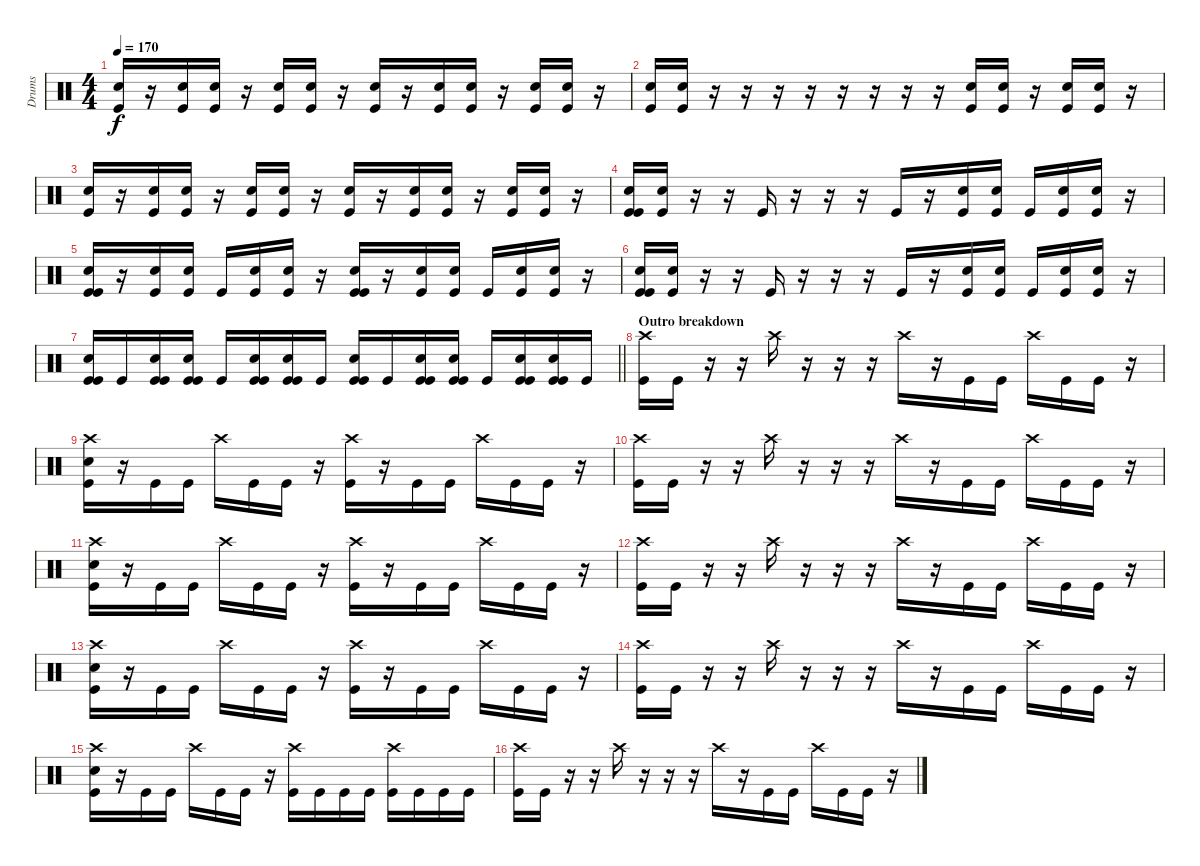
\track ("Drums" "Drums") {instrument percussion}
\staff {score}
\articulation defaults
\ts (4 4)
\tempo 170
\clef neutral
\ks c
("Kick (hit)" "Snare (hit) 2").16{dy f} r.16 ("Kick (hit)" "Snare (hit) 2").16 ("Kick (hit)" "Snare (hit) 2").16 r.16 ("Kick (hit)" "Snare (hit) 2").16 ("Kick (hit)" "Snare (hit) 2").16 r.16 ("Kick (hit)" "Snare (hit) 2").16 r.16 ("Kick (hit)" "Snare (hit) 2").16 ("Kick (hit)" "Snare (hit) 2").16 r.16 ("Kick (hit)" "Snare (hit) 2").16 ("Kick (hit)" "Snare (hit) 2").16 r.16 |
("Kick (hit)" "Snare (hit) 2").16 ("Kick (hit)" "Snare (hit) 2").16 r.16 r.16 r.16 r.16 r.16 r.16 r.16 r.16 ("Kick (hit)" "Snare (hit) 2").16 ("Kick (hit)" "Snare (hit) 2").16 r.16 ("Kick (hit)" "Snare (hit) 2").16 ("Kick (hit)" "Snare (hit) 2").16 r.16 |
("Kick (hit)" "Snare (hit) 2").16 r.16 ("Kick (hit)" "Snare (hit) 2").16 ("Kick (hit)" "Snare (hit) 2").16 r.16 ("Kick (hit)" "Snare (hit) 2").16 ("Kick (hit)" "Snare (hit) 2").16 r.16 ("Kick (hit)" "Snare (hit) 2").16 r.16 ("Kick (hit)" "Snare (hit) 2").16 ("Kick (hit)" "Snare (hit) 2").16 r.16 ("Kick (hit)" "Snare (hit) 2").16 ("Kick (hit)" "Snare (hit) 2").16 r.16 |
("Kick (hit)" "Kick (hit)" "Snare (hit) 2").16 ("Kick (hit)" "Snare (hit) 2").16 r.16 r.16 "Kick (hit)".16 r.16 r.16 r.16 "Kick (hit)".16 r.16 ("Kick (hit)" "Snare (hit) 2").16 ("Kick (hit)" "Snare (hit) 2").16 "Kick (hit)".16 ("Kick (hit)" "Snare (hit) 2").16 ("Kick (hit)" "Snare (hit) 2").16 r.16 |
("Kick (hit)" "Kick (hit)" "Snare (hit) 2").16 r.16 ("Kick (hit)" "Snare (hit) 2").16 ("Kick (hit)" "Snare (hit) 2").16 "Kick (hit)".16 ("Kick (hit)" "Snare (hit) 2").16 ("Kick (hit)" "Snare (hit) 2").16 r.16 ("Kick (hit)" "Kick (hit)" "Snare (hit) 2").16 r.16 ("Kick (hit)" "Snare (hit) 2").16 ("Kick (hit)" "Snare (hit) 2").16 "Kick (hit)".16 ("Kick (hit)" "Snare (hit) 2").16 ("Kick (hit)" "Snare (hit) 2").16 r.16 |
("Kick (hit)" "Kick (hit)" "Snare (hit) 2").16 ("Kick (hit)" "Snare (hit) 2").16 r.16 r.16 "Kick (hit)".16 r.16 r.16 r.16 "Kick (hit)".16 r.16 ("Kick (hit)" "Snare (hit) 2").16 ("Kick (hit)" "Snare (hit) 2").16 "Kick (hit)".16 ("Kick (hit)" "Snare (hit) 2").16 ("Kick (hit)" "Snare (hit) 2").16 r.16 |
\barLineRight lightlight
("Kick (hit)" "Kick (hit)" "Snare (hit) 2").16 "Kick (hit)".16 ("Kick (hit)" "Kick (hit)" "Snare (hit) 2").16 ("Kick (hit)" "Kick (hit)" "Snare (hit) 2").16 "Kick (hit)".16 ("Kick (hit)" "Kick (hit)" "Snare (hit) 2").16 ("Kick (hit)" "Kick (hit)" "Snare (hit) 2").16 "Kick (hit)".16 ("Kick (hit)" "Kick (hit)" "Snare (hit) 2").16 "Kick (hit)".16 ("Kick (hit)" "Kick (hit)" "Snare (hit) 2").16 ("Kick (hit)" "Kick (hit)" "Snare (hit) 2").16 "Kick (hit)".16 ("Kick (hit)" "Kick (hit)" "Snare (hit) 2").16 ("Kick (hit)" "Kick (hit)" "Snare (hit) 2").16 "Kick (hit)".16 |
\section ("" "Outro breakdown")
("Kick (hit)" "Crash high (hit)").16 "Kick (hit)".16 r.16 r.16 "Crash high (hit)".16 r.16 r.16 r.16 "Crash high (hit)".16 r.16 "Kick (hit)".16 "Kick (hit)".16 "Crash high (hit)".16 "Kick (hit)".16 "Kick (hit)".16 r.16 |
("Kick (hit)" "Snare (hit) 2" "Crash high (hit)").16 r.16 "Kick (hit)".16 "Kick (hit)".16 "Crash high (hit)".16 "Kick (hit)".16 "Kick (hit)".16 r.16 ("Kick (hit)" "Crash high (hit)").16 r.16 "Kick (hit)".16 "Kick (hit)".16 "Crash high (hit)".16 "Kick (hit)".16 "Kick (hit)".16 r.16 |
("Kick (hit)" "Crash high (hit)").16 "Kick (hit)".16 r.16 r.16 "Crash high (hit)".16 r.16 r.16 r.16 "Crash high (hit)".16 r.16 "Kick (hit)".16 "Kick (hit)".16 "Crash high (hit)".16 "Kick (hit)".16 "Kick (hit)".16 r.16 |
("Kick (hit)" "Snare (hit) 2" "Crash high (hit)").16 r.16 "Kick (hit)".16 "Kick (hit)".16 "Crash high (hit)".16 "Kick (hit)".16 "Kick (hit)".16 r.16 ("Kick (hit)" "Crash high (hit)").16 r.16 "Kick (hit)".16 "Kick (hit)".16 "Crash high (hit)".16 "Kick (hit)".16 "Kick (hit)".16 r.16 |
("Kick (hit)" "Crash high (hit)").16 "Kick (hit)".16 r.16 r.16 "Crash high (hit)".16 r.16 r.16 r.16 "Crash high (hit)".16 r.16 "Kick (hit)".16 "Kick (hit)".16 "Crash high (hit)".16 "Kick (hit)".16 "Kick (hit)".16 r.16 |
("Kick (hit)" "Snare (hit) 2" "Crash high (hit)").16 r.16 "Kick (hit)".16 "Kick (hit)".16 "Crash high (hit)".16 "Kick (hit)".16 "Kick (hit)".16 r.16 ("Kick (hit)" "Crash high (hit)").16 r.16 "Kick (hit)".16 "Kick (hit)".16 "Crash high (hit)".16 "Kick (hit)".16 "Kick (hit)".16 r.16 |
("Kick (hit)" "Crash high (hit)").16 "Kick (hit)".16 r.16 r.16 "Crash high (hit)".16 r.16 r.16 r.16 "Crash high (hit)".16 r.16 "Kick (hit)".16 "Kick (hit)".16 "Crash high (hit)".16 "Kick (hit)".16 "Kick (hit)".16 r.16 |
("Kick (hit)" "Snare (hit) 2" "Crash high (hit)").16 r.16 "Kick (hit)".16 "Kick (hit)".16 "Crash high (hit)".16 "Kick (hit)".16 "Kick (hit)".16 r.16 ("Kick (hit)" "Crash high (hit)").16 "Kick (hit)".16 "Kick (hit)".16 "Kick (hit)".16 ("Kick (hit)" "Crash high (hit)").16 "Kick (hit)".16 "Kick (hit)".16 "Kick (hit)".16 |
("Kick (hit)" "Crash high (hit)").16 "Kick (hit)".16 r.16 r.16 "Crash high (hit)".16 r.16 r.16 r.16 "Crash high (hit)".16 r.16 "Kick (hit)".16 "Kick (hit)".16 "Crash high (hit)".16 "Kick (hit)".16 "Kick (hit)".16 r.16
